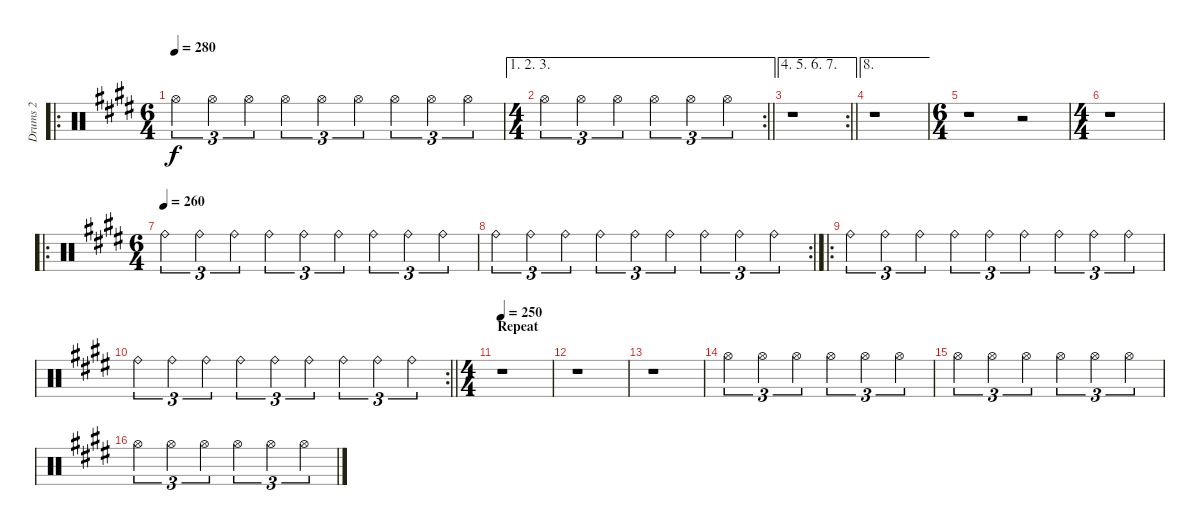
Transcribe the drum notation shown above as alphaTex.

\track ("Drums 2" "Drums 2") {instrument percussion}
\staff {score}
\articulation defaults
\ro
\ts (6 4)
\tempo 280
\clef neutral
\ks c#minor "Hi-Hat (open)".4{tu (3 2) dy f} "Hi-Hat (open)".4{tu (3 2)} "Hi-Hat (open)".4{tu (3 2)} "Hi-Hat (open)".4{tu (3 2)} "Hi-Hat (open)".4{tu (3 2)} "Hi-Hat (open)".4{tu (3 2)} "Hi-Hat (open)".4{tu (3 2)} "Hi-Hat (open)".4{tu (3 2)} "Hi-Hat (open)".4{tu (3 2)}
|
\ae (1 2 3)
\rc 2
\ts (4 4)
\barLineRight lightlight "Hi-Hat (open)".4{tu (3 2)} "Hi-Hat (open)".4{tu (3 2)} "Hi-Hat (open)".4{tu (3 2)} "Hi-Hat (open)".4{tu (3 2)} "Hi-Hat (open)".4{tu (3 2)} "Hi-Hat (open)".4{tu (3 2)}
|
\ae (4 5 6 7)
\rc 2
\barLineRight lightlight
r.1 |
\ae 8
r.1 |
\ts (6 4)
r.1 r.2 |
\ts (4 4)
r.1 |
\ro
\ts (6 4)
\tempo (260)
"Ride (bell)".4{tu (3 2)} "Ride (bell)".4{tu (3 2)} "Ride (bell)".4{tu (3 2)} "Ride (bell)".4{tu (3 2)} "Ride (bell)".4{tu (3 2)} "Ride (bell)".4{tu (3 2)} "Ride (bell)".4{tu (3 2)} "Ride (bell)".4{tu (3 2)} "Ride (bell)".4{tu (3 2)} |
\rc 2 "Ride (bell)".4{tu (3 2)} "Ride (bell)".4{tu (3 2)} "Ride (bell)".4{tu (3 2)} "Ride (bell)".4{tu (3 2)} "Ride (bell)".4{tu (3 2)} "Ride (bell)".4{tu (3 2)} "Ride (bell)".4{tu (3 2)} "Ride (bell)".4{tu (3 2)} "Ride (bell)".4{tu (3 2)}
|
\ro "Ride (bell)".4{tu (3 2)} "Ride (bell)".4{tu (3 2)} "Ride (bell)".4{tu (3 2)} "Ride (bell)".4{tu (3 2)} "Ride (bell)".4{tu (3 2)} "Ride (bell)".4{tu (3 2)} "Ride (bell)".4{tu (3 2)} "Ride (bell)".4{tu (3 2)} "Ride (bell)".4{tu (3 2)}
|
\rc 2
\barLineRight lightlight "Ride (bell)".4{tu (3 2)} "Ride (bell)".4{tu (3 2)} "Ride (bell)".4{tu (3 2)} "Ride (bell)".4{tu (3 2)} "Ride (bell)".4{tu (3 2)} "Ride (bell)".4{tu (3 2)} "Ride (bell)".4{tu (3 2)} "Ride (bell)".4{tu (3 2)} "Ride (bell)".4{tu (3 2)}
|
\ts (4 4)
\section ("" "Repeat")
\tempo 250
r.1 |
r.1 |
r.1 |
"Hi-Hat (open)".4{tu (3 2)} "Hi-Hat (open)".4{tu (3 2)} "Hi-Hat (open)".4{tu (3 2)} "Hi-Hat (open)".4{tu (3 2)} "Hi-Hat (open)".4{tu (3 2)} "Hi-Hat (open)".4{tu (3 2)} |
"Hi-Hat (open)".4{tu (3 2)} "Hi-Hat (open)".4{tu (3 2)} "Hi-Hat (open)".4{tu (3 2)} "Hi-Hat (open)".4{tu (3 2)} "Hi-Hat (open)".4{tu (3 2)} "Hi-Hat (open)".4{tu (3 2)} |
"Hi-Hat (open)".4{tu (3 2)} "Hi-Hat (open)".4{tu (3 2)} "Hi-Hat (open)".4{tu (3 2)} "Hi-Hat (open)".4{tu (3 2)} "Hi-Hat (open)".4{tu (3 2)} "Hi-Hat (open)".4{tu (3 2)}
